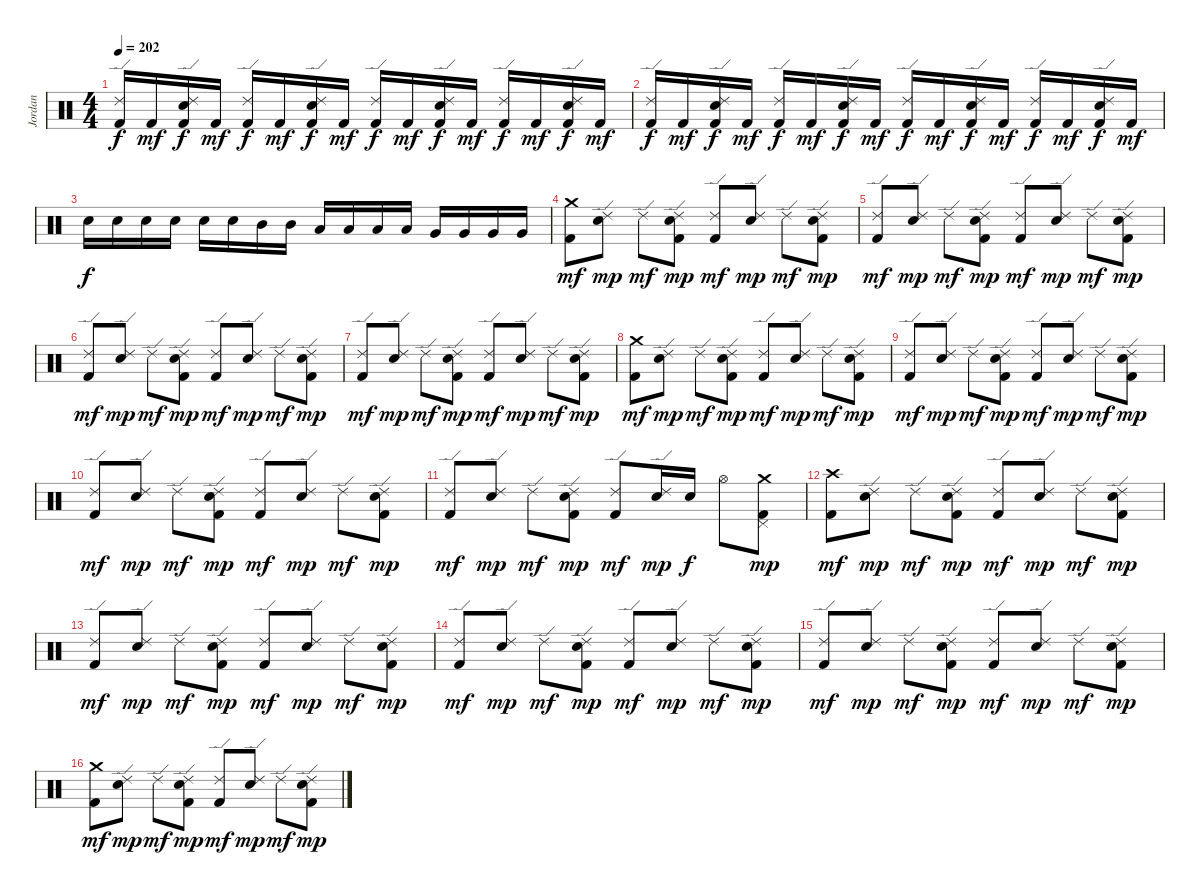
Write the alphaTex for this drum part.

\track ("Jordan" "Jordan") {instrument percussion}
\staff {score}
\articulation defaults
\ts (4 4)
\tempo 202
\clef neutral
\ks c
("Ride (edge) 2" "Kick (hit) 2").16{dy f} "Kick (hit) 2".16{dy mf} ("Ride (edge) 2" "Electric Snare (hit)" "Kick (hit) 2").16{dy f} "Kick (hit) 2".16{dy mf} ("Ride (edge) 2" "Kick (hit) 2").16{dy f} "Kick (hit) 2".16{dy mf} ("Ride (edge) 2" "Electric Snare (hit)" "Kick (hit) 2").16{dy f} "Kick (hit) 2".16{dy mf} ("Ride (edge) 2" "Kick (hit) 2").16{dy f} "Kick (hit) 2".16{dy mf} ("Ride (edge) 2" "Electric Snare (hit)" "Kick (hit) 2").16{dy f} "Kick (hit) 2".16{dy mf} ("Ride (edge) 2" "Kick (hit) 2").16{dy f} "Kick (hit) 2".16{dy mf} ("Ride (edge) 2" "Electric Snare (hit)" "Kick (hit) 2").16{dy f} "Kick (hit) 2".16{dy mf} |
("Ride (edge) 2" "Kick (hit) 2").16{dy f} "Kick (hit) 2".16{dy mf} ("Ride (edge) 2" "Electric Snare (hit)" "Kick (hit) 2").16{dy f} "Kick (hit) 2".16{dy mf} ("Ride (edge) 2" "Kick (hit) 2").16{dy f} "Kick (hit) 2".16{dy mf} ("Ride (edge) 2" "Electric Snare (hit)" "Kick (hit) 2").16{dy f} "Kick (hit) 2".16{dy mf} ("Ride (edge) 2" "Kick (hit) 2").16{dy f} "Kick (hit) 2".16{dy mf} ("Ride (edge) 2" "Electric Snare (hit)" "Kick (hit) 2").16{dy f} "Kick (hit) 2".16{dy mf} ("Ride (edge) 2" "Kick (hit) 2").16{dy f} "Kick (hit) 2".16{dy mf} ("Ride (edge) 2" "Electric Snare (hit)" "Kick (hit) 2").16{dy f} "Kick (hit) 2".16{dy mf} |
"Electric Snare (hit)".16{dy f} "Electric Snare (hit)".16 "Electric Snare (hit)".16 "Electric Snare (hit)".16 "Electric Snare (hit)".16 "Electric Snare (hit)".16 "Mid Tom (hit)".16 "Mid Tom (hit)".16 "Low Tom (hit)".16 "Low Tom (hit)".16 "Low Tom (hit)".16 "Low Tom (hit)".16 "Very Low Tom (hit)".16 "Very Low Tom (hit)".16 "Very Low Tom (hit)".16 "Very Low Tom (hit)".16 |
("Crash medium (hit)" "Kick (hit) 2").8{dy mf} ("Ride (edge) 2" "Electric Snare (hit)").8{dy mp} "Ride (edge) 2".8{dy mf} ("Ride (edge) 2" "Electric Snare (hit)" "Kick (hit) 2").8{dy mp} ("Ride (edge) 2" "Kick (hit) 2").8{dy mf} ("Ride (edge) 2" "Electric Snare (hit)").8{dy mp} "Ride (edge) 2".8{dy mf} ("Ride (edge) 2" "Electric Snare (hit)" "Kick (hit) 2").8{dy mp} |
("Ride (edge) 2" "Kick (hit) 2").8{dy mf} ("Ride (edge) 2" "Electric Snare (hit)").8{dy mp} "Ride (edge) 2".8{dy mf} ("Ride (edge) 2" "Electric Snare (hit)" "Kick (hit) 2").8{dy mp} ("Ride (edge) 2" "Kick (hit) 2").8{dy mf} ("Ride (edge) 2" "Electric Snare (hit)").8{dy mp} "Ride (edge) 2".8{dy mf} ("Ride (edge) 2" "Electric Snare (hit)" "Kick (hit) 2").8{dy mp} |
("Ride (edge) 2" "Kick (hit) 2").8{dy mf} ("Ride (edge) 2" "Electric Snare (hit)").8{dy mp} "Ride (edge) 2".8{dy mf} ("Ride (edge) 2" "Electric Snare (hit)" "Kick (hit) 2").8{dy mp} ("Ride (edge) 2" "Kick (hit) 2").8{dy mf} ("Ride (edge) 2" "Electric Snare (hit)").8{dy mp} "Ride (edge) 2".8{dy mf} ("Ride (edge) 2" "Electric Snare (hit)" "Kick (hit) 2").8{dy mp} |
("Ride (edge) 2" "Kick (hit) 2").8{dy mf} ("Ride (edge) 2" "Electric Snare (hit)").8{dy mp} "Ride (edge) 2".8{dy mf} ("Ride (edge) 2" "Electric Snare (hit)" "Kick (hit) 2").8{dy mp} ("Ride (edge) 2" "Kick (hit) 2").8{dy mf} ("Ride (edge) 2" "Electric Snare (hit)").8{dy mp} "Ride (edge) 2".8{dy mf} ("Ride (edge) 2" "Electric Snare (hit)" "Kick (hit) 2").8{dy mp} |
("Crash medium (hit)" "Kick (hit) 2").8{dy mf} ("Ride (edge) 2" "Electric Snare (hit)").8{dy mp} "Ride (edge) 2".8{dy mf} ("Ride (edge) 2" "Electric Snare (hit)" "Kick (hit) 2").8{dy mp} ("Ride (edge) 2" "Kick (hit) 2").8{dy mf} ("Ride (edge) 2" "Electric Snare (hit)").8{dy mp} "Ride (edge) 2".8{dy mf} ("Ride (edge) 2" "Electric Snare (hit)" "Kick (hit) 2").8{dy mp} |
("Ride (edge) 2" "Kick (hit) 2").8{dy mf} ("Ride (edge) 2" "Electric Snare (hit)").8{dy mp} "Ride (edge) 2".8{dy mf} ("Ride (edge) 2" "Electric Snare (hit)" "Kick (hit) 2").8{dy mp} ("Ride (edge) 2" "Kick (hit) 2").8{dy mf} ("Ride (edge) 2" "Electric Snare (hit)").8{dy mp} "Ride (edge) 2".8{dy mf} ("Ride (edge) 2" "Electric Snare (hit)" "Kick (hit) 2").8{dy mp} |
("Ride (edge) 2" "Kick (hit) 2").8{dy mf} ("Ride (edge) 2" "Electric Snare (hit)").8{dy mp} "Ride (edge) 2".8{dy mf} ("Ride (edge) 2" "Electric Snare (hit)" "Kick (hit) 2").8{dy mp} ("Ride (edge) 2" "Kick (hit) 2").8{dy mf} ("Ride (edge) 2" "Electric Snare (hit)").8{dy mp} "Ride (edge) 2".8{dy mf} ("Ride (edge) 2" "Electric Snare (hit)" "Kick (hit) 2").8{dy mp} |
("Ride (edge) 2" "Kick (hit) 2").8{dy mf} ("Ride (edge) 2" "Electric Snare (hit)").8{dy mp} "Ride (edge) 2".8{dy mf} ("Ride (edge) 2" "Electric Snare (hit)" "Kick (hit) 2").8{dy mp} ("Ride (edge) 2" "Kick (hit) 2").8{dy mf} ("Ride (edge) 2" "Electric Snare (hit)").16{dy mp} "Electric Snare (hit)".16{dy f} "Hi-Hat (open)".8 ("Crash medium (hit)" "Pedal Hi-Hat (hit)" "Kick (hit) 2").8{dy mp} |
("Crash high (hit)" "Kick (hit) 2").8{dy mf} ("Ride (edge) 2" "Electric Snare (hit)").8{dy mp} "Ride (edge) 2".8{dy mf} ("Ride (edge) 2" "Electric Snare (hit)" "Kick (hit) 2").8{dy mp} ("Ride (edge) 2" "Kick (hit) 2").8{dy mf} ("Ride (edge) 2" "Electric Snare (hit)").8{dy mp} "Ride (edge) 2".8{dy mf} ("Ride (edge) 2" "Electric Snare (hit)" "Kick (hit) 2").8{dy mp} |
("Ride (edge) 2" "Kick (hit) 2").8{dy mf} ("Ride (edge) 2" "Electric Snare (hit)").8{dy mp} "Ride (edge) 2".8{dy mf} ("Ride (edge) 2" "Electric Snare (hit)" "Kick (hit) 2").8{dy mp} ("Ride (edge) 2" "Kick (hit) 2").8{dy mf} ("Ride (edge) 2" "Electric Snare (hit)").8{dy mp} "Ride (edge) 2".8{dy mf} ("Ride (edge) 2" "Electric Snare (hit)" "Kick (hit) 2").8{dy mp} |
("Ride (edge) 2" "Kick (hit) 2").8{dy mf} ("Ride (edge) 2" "Electric Snare (hit)").8{dy mp} "Ride (edge) 2".8{dy mf} ("Ride (edge) 2" "Electric Snare (hit)" "Kick (hit) 2").8{dy mp} ("Ride (edge) 2" "Kick (hit) 2").8{dy mf} ("Ride (edge) 2" "Electric Snare (hit)").8{dy mp} "Ride (edge) 2".8{dy mf} ("Ride (edge) 2" "Electric Snare (hit)" "Kick (hit) 2").8{dy mp} |
("Ride (edge) 2" "Kick (hit) 2").8{dy mf} ("Ride (edge) 2" "Electric Snare (hit)").8{dy mp} "Ride (edge) 2".8{dy mf} ("Ride (edge) 2" "Electric Snare (hit)" "Kick (hit) 2").8{dy mp} ("Ride (edge) 2" "Kick (hit) 2").8{dy mf} ("Ride (edge) 2" "Electric Snare (hit)").8{dy mp} "Ride (edge) 2".8{dy mf} ("Ride (edge) 2" "Electric Snare (hit)" "Kick (hit) 2").8{dy mp} |
("Crash medium (hit)" "Kick (hit) 2").8{dy mf} ("Ride (edge) 2" "Electric Snare (hit)").8{dy mp} "Ride (edge) 2".8{dy mf} ("Ride (edge) 2" "Electric Snare (hit)" "Kick (hit) 2").8{dy mp} ("Ride (edge) 2" "Kick (hit) 2").8{dy mf} ("Ride (edge) 2" "Electric Snare (hit)").8{dy mp} "Ride (edge) 2".8{dy mf} ("Ride (edge) 2" "Electric Snare (hit)" "Kick (hit) 2").8{dy mp}
